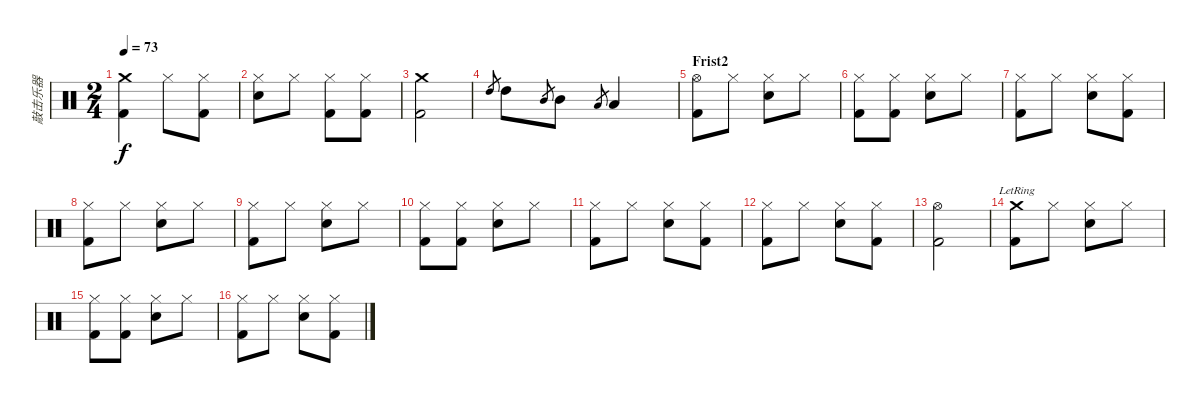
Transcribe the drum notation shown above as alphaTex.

\track ("敲击乐器" "敲击乐器") {instrument percussion}
\staff {score}
\articulation defaults
\ts (2 4)
\tempo 73
\clef neutral
\ks c
("Crash medium (hit)" "Kick (hit) 2").4{dy f} "Hi-Hat (closed)".8 ("Hi-Hat (closed)" "Kick (hit) 2").8 |
("Hi-Hat (closed)" "Electric Snare (hit)").8 "Hi-Hat (closed)".8 ("Hi-Hat (closed)" "Kick (hit) 2").8 ("Hi-Hat (closed)" "Kick (hit) 2").8 |
("Crash medium (hit)" "Kick (hit) 2").2 |
"High Tom (hit)".8{gr} "High Tom (hit)".8 "Mid Tom (hit)".8{gr} "Mid Tom (hit)".8 "Low Tom (hit)".8{gr} "Low Tom (hit)".4 |
\section ("" "Frist2")
("Hi-Hat (open)" "Kick (hit) 2").8 "Hi-Hat (closed)".8 ("Hi-Hat (closed)" "Electric Snare (hit)").8 "Hi-Hat (closed)".8 |
("Hi-Hat (closed)" "Kick (hit) 2").8 ("Hi-Hat (closed)" "Kick (hit) 2").8 ("Hi-Hat (closed)" "Electric Snare (hit)").8 "Hi-Hat (closed)".8 |
("Hi-Hat (closed)" "Kick (hit) 2").8 "Hi-Hat (closed)".8 ("Hi-Hat (closed)" "Electric Snare (hit)").8 ("Hi-Hat (closed)" "Kick (hit) 2").8 |
("Hi-Hat (closed)" "Kick (hit) 2").8 "Hi-Hat (closed)".8 ("Hi-Hat (closed)" "Electric Snare (hit)").8 "Hi-Hat (closed)".8 |
("Hi-Hat (closed)" "Kick (hit) 2").8 "Hi-Hat (closed)".8 ("Hi-Hat (closed)" "Electric Snare (hit)").8 "Hi-Hat (closed)".8 |
("Hi-Hat (closed)" "Kick (hit) 2").8 ("Hi-Hat (closed)" "Kick (hit) 2").8 ("Hi-Hat (closed)" "Electric Snare (hit)").8 "Hi-Hat (closed)".8 |
("Hi-Hat (closed)" "Kick (hit) 2").8 "Hi-Hat (closed)".8 ("Hi-Hat (closed)" "Electric Snare (hit)").8 ("Hi-Hat (closed)" "Kick (hit) 2").8 |
("Hi-Hat (closed)" "Kick (hit) 2").8 "Hi-Hat (closed)".8 ("Hi-Hat (closed)" "Electric Snare (hit)").8 ("Hi-Hat (closed)" "Kick (hit) 2").8 |
("Hi-Hat (open)" "Kick (hit) 2").2 |
("Crash medium (hit)"{lr} "Kick (hit) 2").8 "Hi-Hat (closed)".8 ("Hi-Hat (closed)" "Electric Snare (hit)").8 "Hi-Hat (closed)".8 |
("Hi-Hat (closed)" "Kick (hit) 2").8 ("Hi-Hat (closed)" "Kick (hit) 2").8 ("Hi-Hat (closed)" "Electric Snare (hit)").8 "Hi-Hat (closed)".8 |
("Hi-Hat (closed)" "Kick (hit) 2").8 "Hi-Hat (closed)".8 ("Hi-Hat (closed)" "Electric Snare (hit)").8 ("Hi-Hat (closed)" "Kick (hit) 2").8
